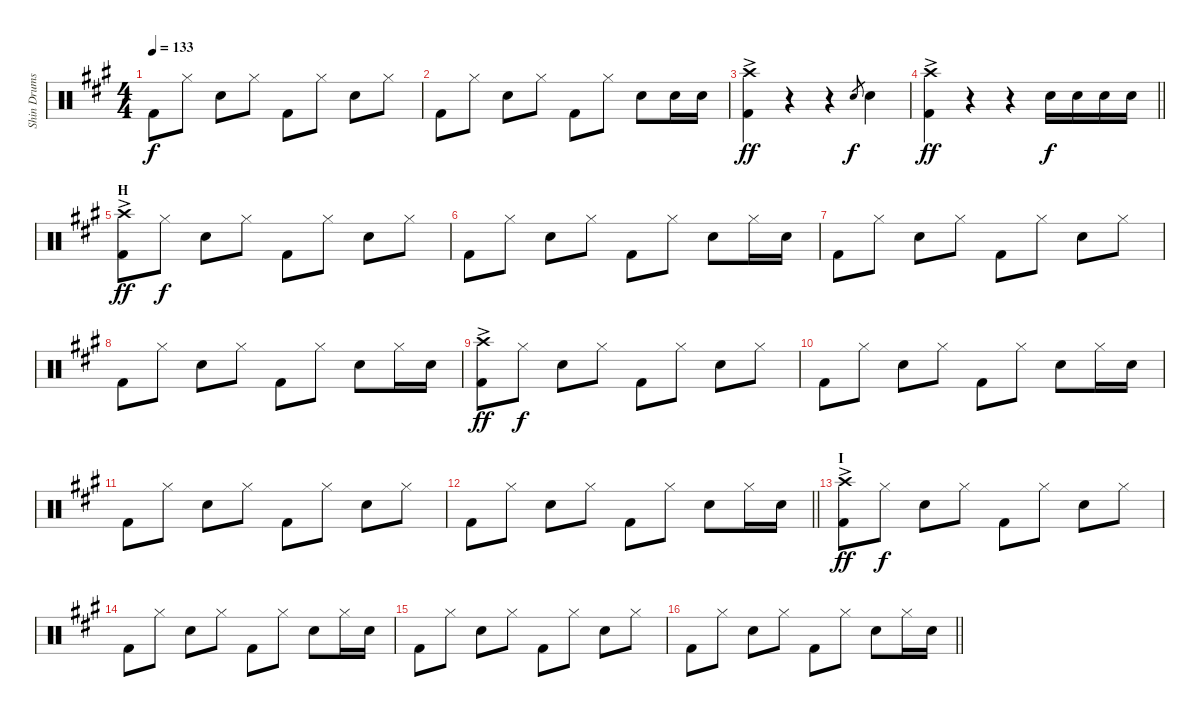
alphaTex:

\track ("Shin Drums" "Shin Drums") {instrument percussion}
\staff {score}
\articulation defaults
\ts (4 4)
\tempo 133
\clef neutral
\ks a "Kick (hit) 2".8{dy f} "Hi-Hat (closed)".8 "Snare (hit) 2".8 "Hi-Hat (closed)".8 "Kick (hit) 2".8 "Hi-Hat (closed)".8 "Snare (hit) 2".8 "Hi-Hat (closed)".8
|
"Kick (hit) 2".8 "Hi-Hat (closed)".8 "Snare (hit) 2".8 "Hi-Hat (closed)".8 "Kick (hit) 2".8 "Hi-Hat (closed)".8 "Snare (hit) 2".8 "Snare (hit) 2".16 "Snare (hit) 2".16 |
("Crash high (hit)"{ac} "Kick (hit) 2").4{dy ff} r.4 r.4 "Snare (hit) 2".8{gr dy f} "Snare (hit) 2".4 |
\barLineRight lightlight
("Crash high (hit)"{ac} "Kick (hit) 2").4{dy ff} r.4 r.4 "Snare (hit) 2".16{dy f} "Snare (hit) 2".16 "Snare (hit) 2".16 "Snare (hit) 2".16 |
\section ("" "H")
("Crash high (hit)"{ac} "Kick (hit) 2").8{dy ff} "Hi-Hat (closed)".8{dy f} "Snare (hit) 2".8 "Hi-Hat (closed)".8 "Kick (hit) 2".8 "Hi-Hat (closed)".8 "Snare (hit) 2".8 "Hi-Hat (closed)".8 |
"Kick (hit) 2".8 "Hi-Hat (closed)".8 "Snare (hit) 2".8 "Hi-Hat (closed)".8 "Kick (hit) 2".8 "Hi-Hat (closed)".8 "Snare (hit) 2".8 "Hi-Hat (closed)".16 "Snare (hit) 2".16 |
"Kick (hit) 2".8 "Hi-Hat (closed)".8 "Snare (hit) 2".8 "Hi-Hat (closed)".8 "Kick (hit) 2".8 "Hi-Hat (closed)".8 "Snare (hit) 2".8 "Hi-Hat (closed)".8 |
"Kick (hit) 2".8 "Hi-Hat (closed)".8 "Snare (hit) 2".8 "Hi-Hat (closed)".8 "Kick (hit) 2".8 "Hi-Hat (closed)".8 "Snare (hit) 2".8 "Hi-Hat (closed)".16 "Snare (hit) 2".16 |
("Crash high (hit)"{ac} "Kick (hit) 2").8{dy ff} "Hi-Hat (closed)".8{dy f} "Snare (hit) 2".8 "Hi-Hat (closed)".8 "Kick (hit) 2".8 "Hi-Hat (closed)".8 "Snare (hit) 2".8 "Hi-Hat (closed)".8 |
"Kick (hit) 2".8 "Hi-Hat (closed)".8 "Snare (hit) 2".8 "Hi-Hat (closed)".8 "Kick (hit) 2".8 "Hi-Hat (closed)".8 "Snare (hit) 2".8 "Hi-Hat (closed)".16 "Snare (hit) 2".16 |
"Kick (hit) 2".8 "Hi-Hat (closed)".8 "Snare (hit) 2".8 "Hi-Hat (closed)".8 "Kick (hit) 2".8 "Hi-Hat (closed)".8 "Snare (hit) 2".8 "Hi-Hat (closed)".8 |
\barLineRight lightlight "Kick (hit) 2".8 "Hi-Hat (closed)".8 "Snare (hit) 2".8 "Hi-Hat (closed)".8 "Kick (hit) 2".8 "Hi-Hat (closed)".8 "Snare (hit) 2".8 "Hi-Hat (closed)".16 "Snare (hit) 2".16
|
\section ("" "I")
("Crash high (hit)"{ac} "Kick (hit) 2").8{dy ff} "Hi-Hat (closed)".8{dy f} "Snare (hit) 2".8 "Hi-Hat (closed)".8 "Kick (hit) 2".8 "Hi-Hat (closed)".8 "Snare (hit) 2".8 "Hi-Hat (closed)".8 |
"Kick (hit) 2".8 "Hi-Hat (closed)".8 "Snare (hit) 2".8 "Hi-Hat (closed)".8 "Kick (hit) 2".8 "Hi-Hat (closed)".8 "Snare (hit) 2".8 "Hi-Hat (closed)".16 "Snare (hit) 2".16 |
"Kick (hit) 2".8 "Hi-Hat (closed)".8 "Snare (hit) 2".8 "Hi-Hat (closed)".8 "Kick (hit) 2".8 "Hi-Hat (closed)".8 "Snare (hit) 2".8 "Hi-Hat (closed)".8 |
\barLineRight lightlight "Kick (hit) 2".8 "Hi-Hat (closed)".8 "Snare (hit) 2".8 "Hi-Hat (closed)".8 "Kick (hit) 2".8 "Hi-Hat (closed)".8 "Snare (hit) 2".8 "Hi-Hat (closed)".16 "Snare (hit) 2".16
